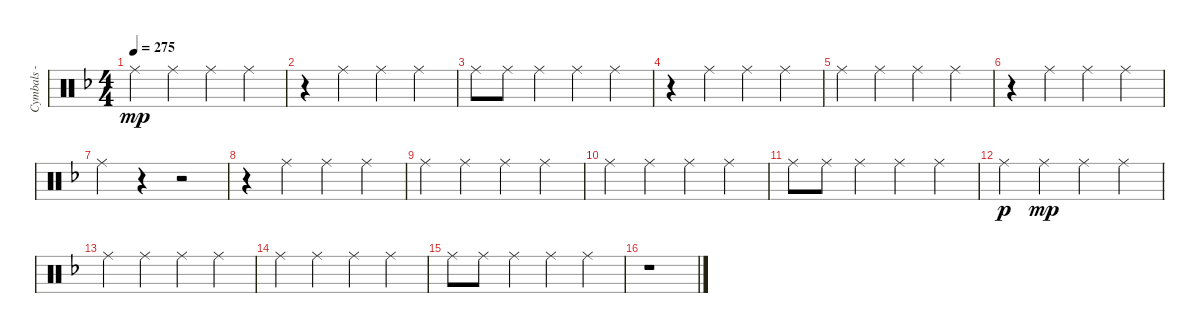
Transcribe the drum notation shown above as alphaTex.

\track ("Cymbals - ride" "Cymbals - ") {instrument percussion}
\staff {score}
\articulation defaults
\ts (4 4)
\tempo 275
\clef neutral
\ks dminor "Ride (middle)".4{dy mp} "Ride (middle)".4 "Ride (middle)".4 "Ride (middle)".4
|
r.4 "Ride (middle)".4 "Ride (middle)".4 "Ride (middle)".4 |
"Ride (middle)".8 "Ride (middle)".8 "Ride (middle)".4 "Ride (middle)".4 "Ride (middle)".4 |
r.4 "Ride (middle)".4 "Ride (middle)".4 "Ride (middle)".4 |
"Ride (middle)".4 "Ride (middle)".4 "Ride (middle)".4 "Ride (middle)".4 |
r.4 "Ride (middle)".4 "Ride (middle)".4 "Ride (middle)".4 |
"Ride (middle)".4 r.4 r.2 |
r.4 "Ride (middle)".4 "Ride (middle)".4 "Ride (middle)".4 |
"Ride (middle)".4 "Ride (middle)".4 "Ride (middle)".4 "Ride (middle)".4 |
"Ride (middle)".4 "Ride (middle)".4 "Ride (middle)".4 "Ride (middle)".4 |
"Ride (middle)".8 "Ride (middle)".8 "Ride (middle)".4 "Ride (middle)".4 "Ride (middle)".4 |
"Ride (middle)".4{dy p} "Ride (middle)".4{dy mp} "Ride (middle)".4 "Ride (middle)".4 |
"Ride (middle)".4 "Ride (middle)".4 "Ride (middle)".4 "Ride (middle)".4 |
"Ride (middle)".4 "Ride (middle)".4 "Ride (middle)".4 "Ride (middle)".4 |
"Ride (middle)".8 "Ride (middle)".8 "Ride (middle)".4 "Ride (middle)".4 "Ride (middle)".4 |
r.1
